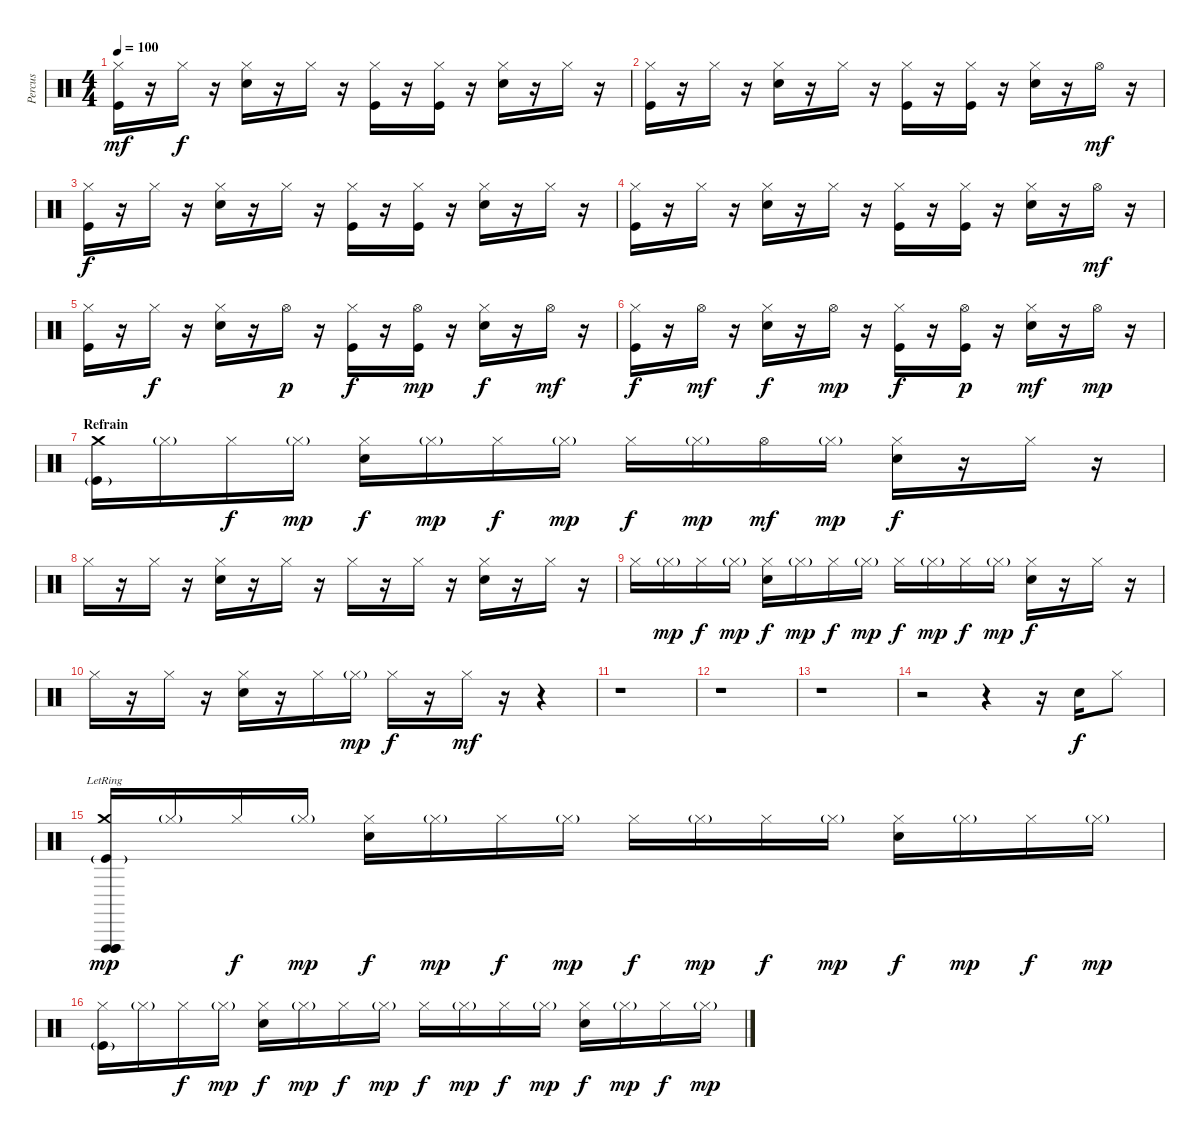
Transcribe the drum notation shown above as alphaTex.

\track ("Percus" "Percus") {instrument percussion}
\staff {score}
\articulation defaults
\ts (4 4)
\tempo 100
\clef neutral
\ks c
("Hi-Hat (closed)" "Kick (hit)").16{dy mf} r.16 "Hi-Hat (closed)".16{dy f} r.16 ("Hi-Hat (closed)" "Snare (hit) 2").16 r.16 "Hi-Hat (closed)".16 r.16 ("Hi-Hat (closed)" "Kick (hit)").16 r.16 ("Hi-Hat (closed)" "Kick (hit)").16 r.16 ("Hi-Hat (closed)" "Snare (hit) 2").16 r.16 "Hi-Hat (closed)".16 r.16 |
("Hi-Hat (closed)" "Kick (hit)").16 r.16 "Hi-Hat (closed)".16 r.16 ("Hi-Hat (closed)" "Snare (hit) 2").16 r.16 "Hi-Hat (closed)".16 r.16 ("Hi-Hat (closed)" "Kick (hit)").16 r.16 ("Hi-Hat (closed)" "Kick (hit)").16 r.16 ("Hi-Hat (closed)" "Snare (hit) 2").16 r.16 "Hi-Hat (open)".16{dy mf} r.16 |
("Hi-Hat (closed)" "Kick (hit)").16{dy f} r.16 "Hi-Hat (closed)".16 r.16 ("Hi-Hat (closed)" "Snare (hit) 2").16 r.16 "Hi-Hat (closed)".16 r.16 ("Hi-Hat (closed)" "Kick (hit)").16 r.16 ("Hi-Hat (closed)" "Kick (hit)").16 r.16 ("Hi-Hat (closed)" "Snare (hit) 2").16 r.16 "Hi-Hat (closed)".16 r.16 |
("Hi-Hat (closed)" "Kick (hit)").16 r.16 "Hi-Hat (closed)".16 r.16 ("Hi-Hat (closed)" "Snare (hit) 2").16 r.16 "Hi-Hat (closed)".16 r.16 ("Hi-Hat (closed)" "Kick (hit)").16 r.16 ("Hi-Hat (closed)" "Kick (hit)").16 r.16 ("Hi-Hat (closed)" "Snare (hit) 2").16 r.16 "Hi-Hat (open)".16{dy mf} r.16 |
("Hi-Hat (closed)" "Kick (hit)").16 r.16 "Hi-Hat (closed)".16{dy f} r.16 ("Hi-Hat (closed)" "Snare (hit) 2").16 r.16 "Hi-Hat (open)".16{dy p} r.16 ("Hi-Hat (closed)" "Kick (hit)").16{dy f} r.16 ("Hi-Hat (open)" "Kick (hit)").16{dy mp} r.16 ("Hi-Hat (closed)" "Snare (hit) 2").16{dy f} r.16 "Hi-Hat (open)".16{dy mf} r.16 |
("Hi-Hat (closed)" "Kick (hit)").16{dy f} r.16 "Hi-Hat (open)".16{dy mf} r.16 ("Hi-Hat (closed)" "Snare (hit) 2").16{dy f} r.16 "Hi-Hat (open)".16{dy mp} r.16 ("Hi-Hat (closed)" "Kick (hit)").16{dy f} r.16 ("Hi-Hat (open)" "Kick (hit)").16{dy p} r.16 ("Hi-Hat (closed)" "Electric Snare (hit)").16{dy mf} r.16 "Hi-Hat (open)".16{dy mp} r.16 |
\section ("" "Refrain")
("Crash medium (hit)" "Kick (hit)"{g}).16 "Hi-Hat (closed)"{g}.16 "Hi-Hat (closed)".16{dy f} "Hi-Hat (closed)"{g}.16{dy mp} ("Hi-Hat (closed)" "Electric Snare (hit)").16{dy f} "Hi-Hat (closed)"{g}.16{dy mp} "Hi-Hat (closed)".16{dy f} "Hi-Hat (closed)"{g}.16{dy mp} "Hi-Hat (closed)".16{dy f} "Hi-Hat (closed)"{g}.16{dy mp} "Hi-Hat (open)".16{dy mf} "Hi-Hat (closed)"{g}.16{dy mp} ("Hi-Hat (closed)" "Electric Snare (hit)").16{dy f} r.16 "Hi-Hat (closed)".16 r.16 |
"Hi-Hat (closed)".16 r.16 "Hi-Hat (closed)".16 r.16 ("Hi-Hat (closed)" "Electric Snare (hit)").16 r.16 "Hi-Hat (closed)".16 r.16 "Hi-Hat (closed)".16 r.16 "Hi-Hat (closed)".16 r.16 ("Hi-Hat (closed)" "Electric Snare (hit)").16 r.16 "Hi-Hat (closed)".16 r.16 |
"Hi-Hat (closed)".16 "Hi-Hat (closed)"{g}.16{dy mp} "Hi-Hat (closed)".16{dy f} "Hi-Hat (closed)"{g}.16{dy mp} ("Hi-Hat (closed)" "Electric Snare (hit)").16{dy f} "Hi-Hat (closed)"{g}.16{dy mp} "Hi-Hat (closed)".16{dy f} "Hi-Hat (closed)"{g}.16{dy mp} "Hi-Hat (closed)".16{dy f} "Hi-Hat (closed)"{g}.16{dy mp} "Hi-Hat (closed)".16{dy f} "Hi-Hat (closed)"{g}.16{dy mp} ("Hi-Hat (closed)" "Electric Snare (hit)").16{dy f} r.16 "Hi-Hat (closed)".16 r.16 |
"Hi-Hat (closed)".16 r.16 "Hi-Hat (closed)".16 r.16 ("Hi-Hat (closed)" "Electric Snare (hit)").16 r.16 "Hi-Hat (closed)".16 "Hi-Hat (closed)"{g}.16{dy mp} "Hi-Hat (closed)".16{dy f} r.16 "Hi-Hat (closed)".16{dy mf} r.16 r.4 |
r.1 |
r.1 |
r.1 |
r.2 r.4 r.16 "Electric Snare (hit)".16{dy f} "Hi-Hat (closed)".8 |
("Crash medium (hit)" "Vibraslap (hit)"{lr} "Vibraslap (hit)"{lr} "Vibraslap (hit)"{lr} "Kick (hit)"{g}).16{dy mp} "Hi-Hat (closed)"{g}.16 "Hi-Hat (closed)".16{dy f} "Hi-Hat (closed)"{g}.16{dy mp} ("Hi-Hat (closed)" "Electric Snare (hit)").16{dy f} "Hi-Hat (closed)"{g}.16{dy mp} "Hi-Hat (closed)".16{dy f} "Hi-Hat (closed)"{g}.16{dy mp} "Hi-Hat (closed)".16{dy f} "Hi-Hat (closed)"{g}.16{dy mp} "Hi-Hat (closed)".16{dy f} "Hi-Hat (closed)"{g}.16{dy mp} ("Hi-Hat (closed)" "Electric Snare (hit)").16{dy f} "Hi-Hat (closed)"{g}.16{dy mp} "Hi-Hat (closed)".16{dy f} "Hi-Hat (closed)"{g}.16{dy mp} |
("Hi-Hat (closed)" "Kick (hit)"{g}).16 "Hi-Hat (closed)"{g}.16 "Hi-Hat (closed)".16{dy f} "Hi-Hat (closed)"{g}.16{dy mp} ("Hi-Hat (closed)" "Electric Snare (hit)").16{dy f} "Hi-Hat (closed)"{g}.16{dy mp} "Hi-Hat (closed)".16{dy f} "Hi-Hat (closed)"{g}.16{dy mp} "Hi-Hat (closed)".16{dy f} "Hi-Hat (closed)"{g}.16{dy mp} "Hi-Hat (closed)".16{dy f} "Hi-Hat (closed)"{g}.16{dy mp} ("Hi-Hat (closed)" "Electric Snare (hit)").16{dy f} "Hi-Hat (closed)"{g}.16{dy mp} "Hi-Hat (closed)".16{dy f} "Hi-Hat (closed)"{g}.16{dy mp}
